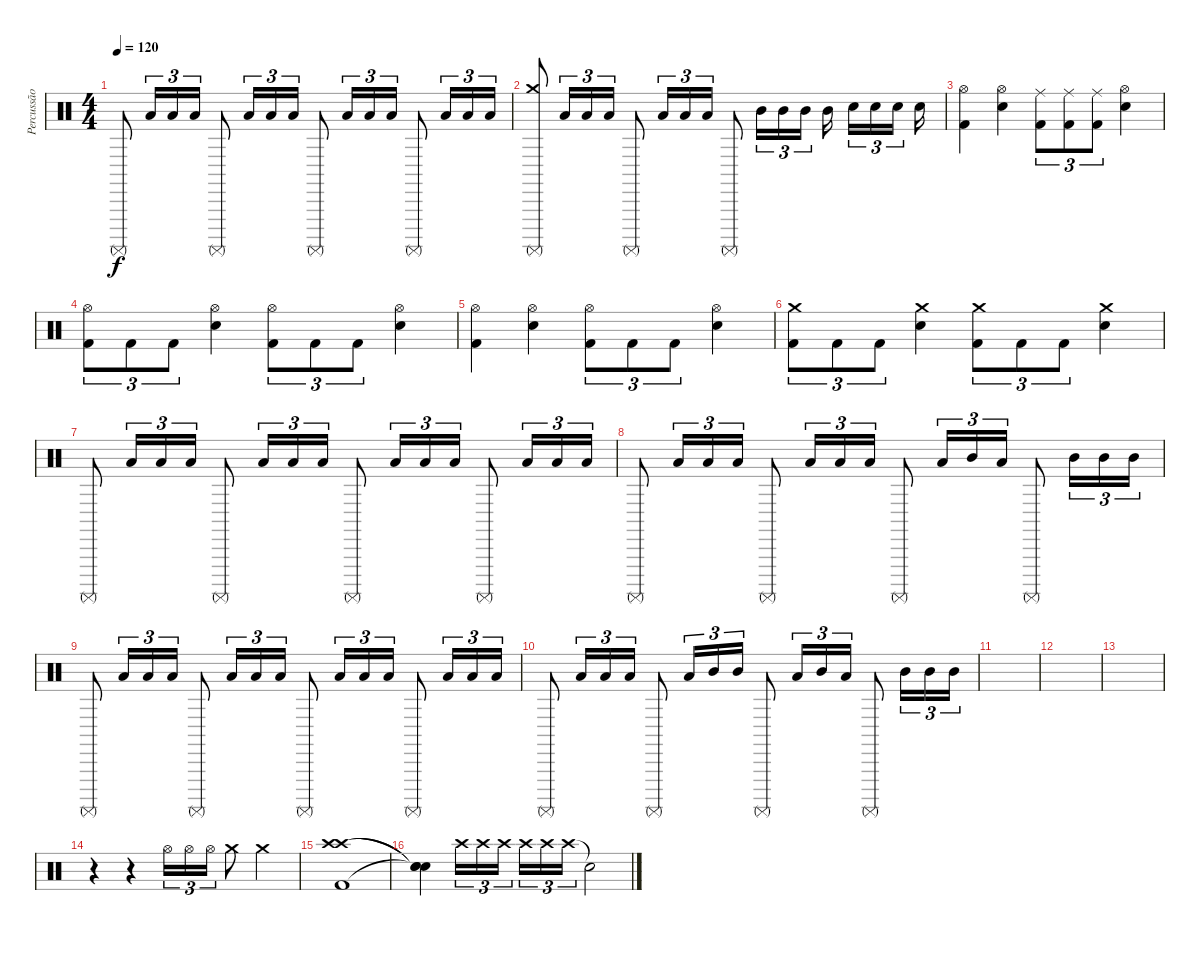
\track ("Percussão" "Percussão") {instrument percussion}
\staff {score}
\articulation defaults
\ts (4 4)
\tempo 120
\clef neutral
\ks c "Surdo (mute)".8{dy f} "Low Tom (hit)".16{tu (3 2)} "Low Tom (hit)".16{tu (3 2)} "Low Tom (hit)".16{tu (3 2)} "Surdo (mute)".8 "Low Tom (hit)".16{tu (3 2)} "Low Tom (hit)".16{tu (3 2)} "Low Tom (hit)".16{tu (3 2)} "Surdo (mute)".8 "Low Tom (hit)".16{tu (3 2)} "Low Tom (hit)".16{tu (3 2)} "Low Tom (hit)".16{tu (3 2)} "Surdo (mute)".8 "Low Tom (hit)".16{tu (3 2)} "Low Tom (hit)".16{tu (3 2)} "Low Tom (hit)".16{tu (3 2)}
|
("Crash medium (hit)" "Surdo (mute)").8 "Low Tom (hit)".16{tu (3 2)} "Low Tom (hit)".16{tu (3 2)} "Low Tom (hit)".16{tu (3 2)} "Surdo (mute)".8 "Low Tom (hit)".16{tu (3 2)} "Low Tom (hit)".16{tu (3 2)} "Low Tom (hit)".16{tu (3 2)} "Surdo (mute)".8 "Mid Tom (hit)".16{tu (3 2)} "Mid Tom (hit)".16{tu (3 2)} "Mid Tom (hit)".16{tu (3 2)} "Mid Tom (hit)".16 "Snare (hit) 2".16{tu (3 2)} "Snare (hit) 2".16{tu (3 2)} "Snare (hit) 2".16{tu (3 2)} "Snare (hit) 2".16 |
("Kick (hit) 2" "Hi-Hat (open)").4 ("Snare (hit) 2" "Hi-Hat (open)").4 ("Kick (hit) 2" "Ride (middle)").8{tu (3 2)} ("Kick (hit) 2" "Ride (middle)").8{tu (3 2)} ("Kick (hit) 2" "Ride (middle)").8{tu (3 2)} ("Snare (hit) 2" "Hi-Hat (open)").4 |
("Kick (hit) 2" "Hi-Hat (open)").8{tu (3 2)} "Kick (hit) 2".8{tu (3 2)} "Kick (hit) 2".8{tu (3 2)} ("Hi-Hat (open)" "Snare (hit) 2").4 ("Kick (hit) 2" "Hi-Hat (open)").8{tu (3 2)} "Kick (hit) 2".8{tu (3 2)} "Kick (hit) 2".8{tu (3 2)} ("Snare (hit) 2" "Hi-Hat (open)").4 |
("Kick (hit) 2" "Hi-Hat (open)").4 ("Snare (hit) 2" "Hi-Hat (open)").4 ("Kick (hit) 2" "Hi-Hat (open)").8{tu (3 2)} "Kick (hit) 2".8{tu (3 2)} "Kick (hit) 2".8{tu (3 2)} ("Snare (hit) 2" "Hi-Hat (open)").4 |
("Kick (hit) 2" "Crash medium (hit)").8{tu (3 2)} "Kick (hit) 2".8{tu (3 2)} "Kick (hit) 2".8{tu (3 2)} ("Crash medium (hit)" "Snare (hit) 2").4 ("Kick (hit) 2" "Crash medium (hit)").8{tu (3 2)} "Kick (hit) 2".8{tu (3 2)} "Kick (hit) 2".8{tu (3 2)} ("Snare (hit) 2" "Crash medium (hit)").4 |
"Surdo (mute)".8 "Low Tom (hit)".16{tu (3 2)} "Low Tom (hit)".16{tu (3 2)} "Low Tom (hit)".16{tu (3 2)} "Surdo (mute)".8 "Low Tom (hit)".16{tu (3 2)} "Low Tom (hit)".16{tu (3 2)} "Low Tom (hit)".16{tu (3 2)} "Surdo (mute)".8 "Low Tom (hit)".16{tu (3 2)} "Low Tom (hit)".16{tu (3 2)} "Low Tom (hit)".16{tu (3 2)} "Surdo (mute)".8 "Low Tom (hit)".16{tu (3 2)} "Low Tom (hit)".16{tu (3 2)} "Low Tom (hit)".16{tu (3 2)} |
"Surdo (mute)".8 "Low Tom (hit)".16{tu (3 2)} "Low Tom (hit)".16{tu (3 2)} "Low Tom (hit)".16{tu (3 2)} "Surdo (mute)".8 "Low Tom (hit)".16{tu (3 2)} "Low Tom (hit)".16{tu (3 2)} "Low Tom (hit)".16{tu (3 2)} "Surdo (mute)".8 "Low Tom (hit)".16{tu (3 2)} "Mid Tom (hit)".16{tu (3 2)} "Low Tom (hit)".16{tu (3 2)} "Surdo (mute)".8 "Mid Tom (hit)".16{tu (3 2)} "Mid Tom (hit)".16{tu (3 2)} "Mid Tom (hit)".16{tu (3 2)} |
"Surdo (mute)".8 "Low Tom (hit)".16{tu (3 2)} "Low Tom (hit)".16{tu (3 2)} "Low Tom (hit)".16{tu (3 2)} "Surdo (mute)".8 "Low Tom (hit)".16{tu (3 2)} "Low Tom (hit)".16{tu (3 2)} "Low Tom (hit)".16{tu (3 2)} "Surdo (mute)".8 "Low Tom (hit)".16{tu (3 2)} "Low Tom (hit)".16{tu (3 2)} "Low Tom (hit)".16{tu (3 2)} "Surdo (mute)".8 "Low Tom (hit)".16{tu (3 2)} "Low Tom (hit)".16{tu (3 2)} "Low Tom (hit)".16{tu (3 2)} |
"Surdo (mute)".8 "Low Tom (hit)".16{tu (3 2)} "Low Tom (hit)".16{tu (3 2)} "Low Tom (hit)".16{tu (3 2)} "Surdo (mute)".8 "Low Tom (hit)".16{tu (3 2)} "Mid Tom (hit)".16{tu (3 2)} "Mid Tom (hit)".16{tu (3 2)} "Surdo (mute)".8 "Low Tom (hit)".16{tu (3 2)} "Mid Tom (hit)".16{tu (3 2)} "Low Tom (hit)".16{tu (3 2)} "Surdo (mute)".8 "Mid Tom (hit)".16{tu (3 2)} "Mid Tom (hit)".16{tu (3 2)} "Mid Tom (hit)".16{tu (3 2)} |
|
|
|
r.4 r.4 "Hi-Hat (open)".16{tu (3 2)} "Hi-Hat (open)".16{tu (3 2)} "Hi-Hat (open)".16{tu (3 2)} "Crash medium (hit)".8 "Crash medium (hit)".4 |
("Kick (hit) 2" "Crash high (hit)" "Crash high (hit)").1 |
("Snare (hit)"{t} "Snare (hit)"{t} "Snare (hit)"{t}).4 "Crash high (hit)".16{tu (3 2)} "Crash high (hit)".16{tu (3 2)} "Crash high (hit)".16{tu (3 2)} "Crash high (hit)".16{tu (3 2)} "Crash high (hit)".16{tu (3 2)} "Crash high (hit)".16{tu (3 2)} "Snare (hit)"{t}.2
